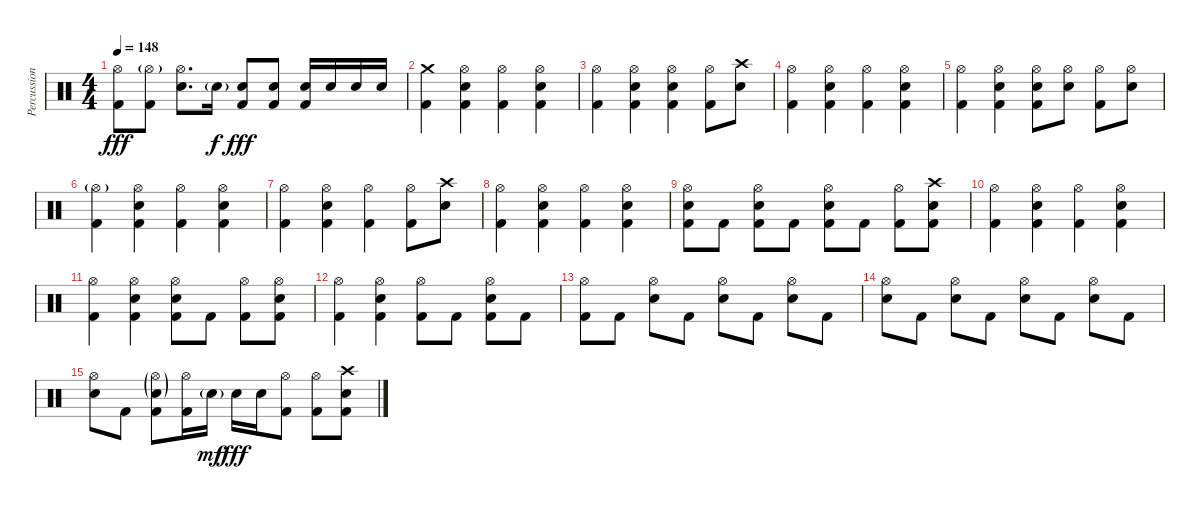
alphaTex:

\track ("Percussion" "Percussion") {instrument percussion}
\staff {score}
\articulation defaults
\ts (4 4)
\tempo 148
\clef neutral
\ks c
("Hi-Hat (open)" "Kick (hit) 2").8{dy fff} ("Hi-Hat (open)"{g} "Kick (hit) 2").8 ("Hi-Hat (open)" "Electric Snare (hit)").8{d} "Electric Snare (hit)"{g}.16{dy f} ("Kick (hit) 2" "Electric Snare (hit)").8{dy fff} ("Kick (hit) 2" "Electric Snare (hit)").8 ("Kick (hit) 2" "Electric Snare (hit)").16 "Electric Snare (hit)".16 "Electric Snare (hit)".16 "Electric Snare (hit)".16 |
("Crash medium (hit)" "Kick (hit) 2").4 ("Hi-Hat (open)" "Kick (hit) 2" "Electric Snare (hit)").4 ("Hi-Hat (open)" "Kick (hit) 2").4 ("Hi-Hat (open)" "Kick (hit) 2" "Electric Snare (hit)").4 |
("Hi-Hat (open)" "Kick (hit) 2").4 ("Hi-Hat (open)" "Kick (hit) 2" "Electric Snare (hit)").4 ("Hi-Hat (open)" "Kick (hit) 2" "Electric Snare (hit)").4 ("Hi-Hat (open)" "Kick (hit) 2").8 ("Crash high (hit)" "Electric Snare (hit)").8 |
("Hi-Hat (open)" "Kick (hit) 2").4 ("Hi-Hat (open)" "Kick (hit) 2" "Electric Snare (hit)").4 ("Hi-Hat (open)" "Kick (hit) 2").4 ("Hi-Hat (open)" "Kick (hit) 2" "Electric Snare (hit)").4 |
("Hi-Hat (open)" "Kick (hit) 2").4 ("Hi-Hat (open)" "Kick (hit) 2" "Electric Snare (hit)").4 ("Hi-Hat (open)" "Kick (hit) 2" "Electric Snare (hit)").8 ("Hi-Hat (open)" "Electric Snare (hit)").8 ("Hi-Hat (open)" "Kick (hit) 2").8 ("Hi-Hat (open)" "Electric Snare (hit)").8 |
("Hi-Hat (open)"{g} "Kick (hit) 2").4 ("Hi-Hat (open)" "Kick (hit) 2" "Electric Snare (hit)").4 ("Hi-Hat (open)" "Kick (hit) 2").4 ("Hi-Hat (open)" "Kick (hit) 2" "Electric Snare (hit)").4 |
("Hi-Hat (open)" "Kick (hit) 2").4 ("Hi-Hat (open)" "Kick (hit) 2" "Electric Snare (hit)").4 ("Hi-Hat (open)" "Kick (hit) 2").4 ("Hi-Hat (open)" "Kick (hit) 2").8 ("Crash high (hit)" "Electric Snare (hit)").8 |
("Hi-Hat (open)" "Kick (hit) 2").4 ("Hi-Hat (open)" "Kick (hit) 2" "Electric Snare (hit)").4 ("Hi-Hat (open)" "Kick (hit) 2").4 ("Hi-Hat (open)" "Kick (hit) 2" "Electric Snare (hit)").4 |
("Hi-Hat (open)" "Kick (hit) 2" "Electric Snare (hit)").8 "Kick (hit) 2".8 ("Hi-Hat (open)" "Kick (hit) 2" "Electric Snare (hit)").8 "Kick (hit) 2".8 ("Hi-Hat (open)" "Kick (hit) 2" "Electric Snare (hit)").8 "Kick (hit) 2".8 ("Hi-Hat (open)" "Kick (hit) 2").8 ("Crash high (hit)" "Kick (hit) 2" "Electric Snare (hit)").8 |
("Hi-Hat (open)" "Kick (hit) 2").4 ("Hi-Hat (open)" "Kick (hit) 2" "Electric Snare (hit)").4 ("Hi-Hat (open)" "Kick (hit) 2").4 ("Hi-Hat (open)" "Kick (hit) 2" "Electric Snare (hit)").4 |
("Hi-Hat (open)" "Kick (hit) 2").4 ("Hi-Hat (open)" "Kick (hit) 2" "Electric Snare (hit)").4 ("Hi-Hat (open)" "Kick (hit) 2" "Electric Snare (hit)").8 "Kick (hit) 2".8 ("Hi-Hat (open)" "Kick (hit) 2").8 ("Hi-Hat (open)" "Kick (hit) 2" "Electric Snare (hit)").8 |
("Hi-Hat (open)" "Kick (hit) 2").4 ("Hi-Hat (open)" "Kick (hit) 2" "Electric Snare (hit)").4 ("Hi-Hat (open)" "Kick (hit) 2").8 "Kick (hit) 2".8 ("Hi-Hat (open)" "Kick (hit) 2" "Electric Snare (hit)").8 "Kick (hit) 2".8 |
("Hi-Hat (open)" "Kick (hit) 2").8 "Kick (hit) 2".8 ("Hi-Hat (open)" "Electric Snare (hit)").8 "Kick (hit) 2".8 ("Hi-Hat (open)" "Electric Snare (hit)").8 "Kick (hit) 2".8 ("Hi-Hat (open)" "Electric Snare (hit)").8 "Kick (hit) 2".8 |
("Hi-Hat (open)" "Electric Snare (hit)").8 "Kick (hit) 2".8 ("Hi-Hat (open)" "Electric Snare (hit)").8 "Kick (hit) 2".8 ("Hi-Hat (open)" "Electric Snare (hit)").8 "Kick (hit) 2".8 ("Hi-Hat (open)" "Electric Snare (hit)").8 "Kick (hit) 2".8 |
("Hi-Hat (open)" "Electric Snare (hit)").8 "Kick (hit) 2".8 ("Hi-Hat (open)"{g} "Kick (hit) 2" "Electric Snare (hit)"{g}).8 ("Hi-Hat (open)" "Kick (hit) 2").16 "Electric Snare (hit)"{g}.16{dy mf} "Electric Snare (hit)".16{dy fff} "Electric Snare (hit)".16 ("Hi-Hat (open)" "Kick (hit) 2").8 ("Hi-Hat (open)" "Kick (hit) 2").8 ("Crash high (hit)" "Kick (hit) 2" "Electric Snare (hit)").8
